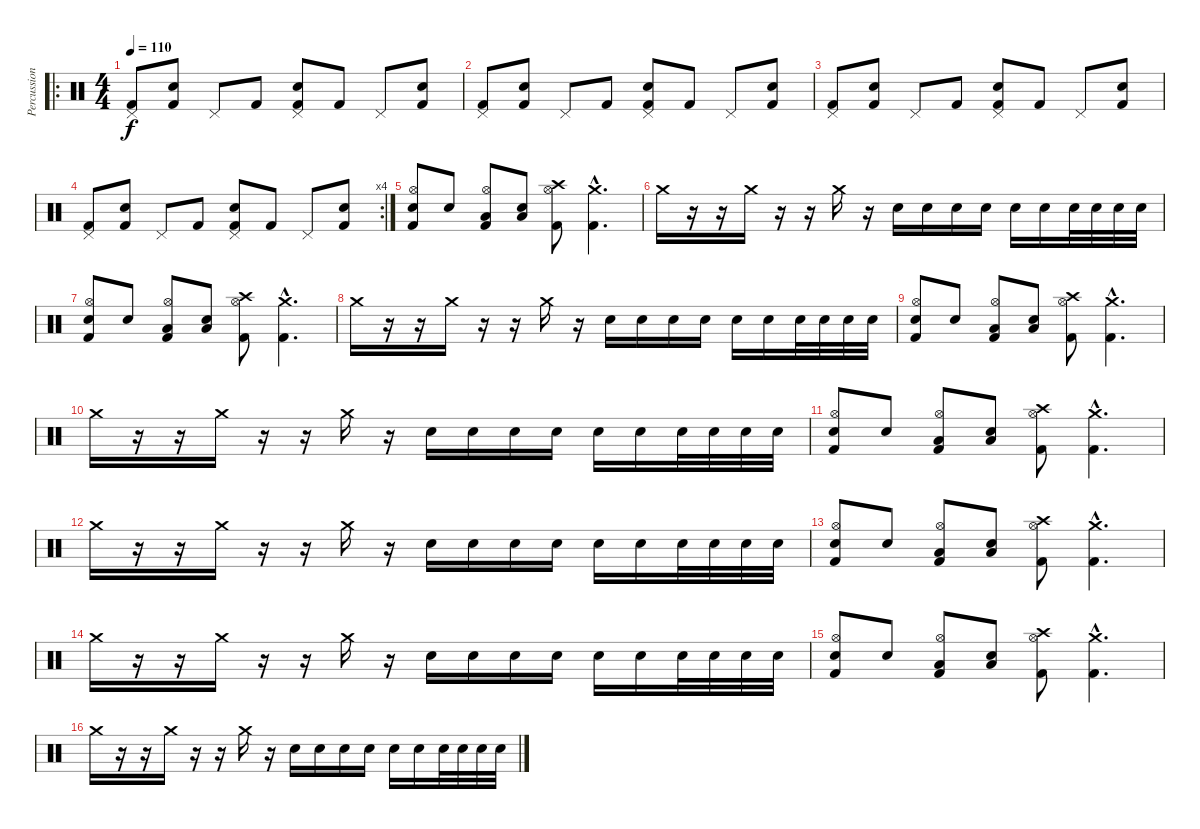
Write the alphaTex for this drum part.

\track ("Percussion" "Percussion") {instrument percussion}
\staff {score}
\articulation defaults
\ro
\ts (4 4)
\tempo 110
\clef neutral
\ks c
("Pedal Hi-Hat (hit)" "Kick (hit) 2").8{dy f} ("Electric Snare (hit)" "Kick (hit) 2").8 "Pedal Hi-Hat (hit)".8 "Kick (hit) 2".8 ("Pedal Hi-Hat (hit)" "Electric Snare (hit)" "Kick (hit) 2").8 "Kick (hit) 2".8 "Pedal Hi-Hat (hit)".8 ("Electric Snare (hit)" "Kick (hit) 2").8 |
("Pedal Hi-Hat (hit)" "Kick (hit) 2").8 ("Electric Snare (hit)" "Kick (hit) 2").8 "Pedal Hi-Hat (hit)".8 "Kick (hit) 2".8 ("Pedal Hi-Hat (hit)" "Electric Snare (hit)" "Kick (hit) 2").8 "Kick (hit) 2".8 "Pedal Hi-Hat (hit)".8 ("Electric Snare (hit)" "Kick (hit) 2").8 |
("Pedal Hi-Hat (hit)" "Kick (hit) 2").8 ("Electric Snare (hit)" "Kick (hit) 2").8 "Pedal Hi-Hat (hit)".8 "Kick (hit) 2".8 ("Pedal Hi-Hat (hit)" "Electric Snare (hit)" "Kick (hit) 2").8 "Kick (hit) 2".8 "Pedal Hi-Hat (hit)".8 ("Electric Snare (hit)" "Kick (hit) 2").8 |
\rc 4
("Pedal Hi-Hat (hit)" "Kick (hit) 2").8 ("Electric Snare (hit)" "Kick (hit) 2").8 "Pedal Hi-Hat (hit)".8 "Kick (hit) 2".8 ("Pedal Hi-Hat (hit)" "Electric Snare (hit)" "Kick (hit) 2").8 "Kick (hit) 2".8 "Pedal Hi-Hat (hit)".8 ("Electric Snare (hit)" "Kick (hit) 2").8 |
("Hi-Hat (open)" "Snare (hit) 2" "Kick (hit) 2").8 "Snare (hit) 2".8 ("Hi-Hat (open)" "Low Tom (hit)" "Kick (hit) 2").8 ("Low Tom (hit)" "Snare (hit) 2").8 ("Hi-Hat (open)" "Crash high (hit)" "Kick (hit) 2").8 ("Crash medium (hit)"{hac} "Kick (hit) 2"{hac}).4{d} |
"Crash medium (hit)".16 r.16 r.16 "Crash medium (hit)".16 r.16 r.16 "Crash medium (hit)".16 r.16 "Electric Snare (hit)".16 "Electric Snare (hit)".16 "Electric Snare (hit)".16 "Electric Snare (hit)".16 "Electric Snare (hit)".16 "Electric Snare (hit)".16 "Electric Snare (hit)".32 "Electric Snare (hit)".32 "Electric Snare (hit)".32 "Electric Snare (hit)".32 |
("Hi-Hat (open)" "Snare (hit) 2" "Kick (hit) 2").8 "Snare (hit) 2".8 ("Hi-Hat (open)" "Low Tom (hit)" "Kick (hit) 2").8 ("Low Tom (hit)" "Snare (hit) 2").8 ("Hi-Hat (open)" "Crash high (hit)" "Kick (hit) 2").8 ("Crash medium (hit)"{hac} "Kick (hit) 2"{hac}).4{d} |
"Crash medium (hit)".16 r.16 r.16 "Crash medium (hit)".16 r.16 r.16 "Crash medium (hit)".16 r.16 "Electric Snare (hit)".16 "Electric Snare (hit)".16 "Electric Snare (hit)".16 "Electric Snare (hit)".16 "Electric Snare (hit)".16 "Electric Snare (hit)".16 "Electric Snare (hit)".32 "Electric Snare (hit)".32 "Electric Snare (hit)".32 "Electric Snare (hit)".32 |
("Hi-Hat (open)" "Snare (hit) 2" "Kick (hit) 2").8 "Snare (hit) 2".8 ("Hi-Hat (open)" "Low Tom (hit)" "Kick (hit) 2").8 ("Low Tom (hit)" "Snare (hit) 2").8 ("Hi-Hat (open)" "Crash high (hit)" "Kick (hit) 2").8 ("Crash medium (hit)"{hac} "Kick (hit) 2"{hac}).4{d} |
"Crash medium (hit)".16 r.16 r.16 "Crash medium (hit)".16 r.16 r.16 "Crash medium (hit)".16 r.16 "Electric Snare (hit)".16 "Electric Snare (hit)".16 "Electric Snare (hit)".16 "Electric Snare (hit)".16 "Electric Snare (hit)".16 "Electric Snare (hit)".16 "Electric Snare (hit)".32 "Electric Snare (hit)".32 "Electric Snare (hit)".32 "Electric Snare (hit)".32 |
("Hi-Hat (open)" "Snare (hit) 2" "Kick (hit) 2").8 "Snare (hit) 2".8 ("Hi-Hat (open)" "Low Tom (hit)" "Kick (hit) 2").8 ("Low Tom (hit)" "Snare (hit) 2").8 ("Hi-Hat (open)" "Crash high (hit)" "Kick (hit) 2").8 ("Crash medium (hit)"{hac} "Kick (hit) 2"{hac}).4{d} |
"Crash medium (hit)".16 r.16 r.16 "Crash medium (hit)".16 r.16 r.16 "Crash medium (hit)".16 r.16 "Electric Snare (hit)".16 "Electric Snare (hit)".16 "Electric Snare (hit)".16 "Electric Snare (hit)".16 "Electric Snare (hit)".16 "Electric Snare (hit)".16 "Electric Snare (hit)".32 "Electric Snare (hit)".32 "Electric Snare (hit)".32 "Electric Snare (hit)".32 |
("Hi-Hat (open)" "Snare (hit) 2" "Kick (hit) 2").8 "Snare (hit) 2".8 ("Hi-Hat (open)" "Low Tom (hit)" "Kick (hit) 2").8 ("Low Tom (hit)" "Snare (hit) 2").8 ("Hi-Hat (open)" "Crash high (hit)" "Kick (hit) 2").8 ("Crash medium (hit)"{hac} "Kick (hit) 2"{hac}).4{d} |
"Crash medium (hit)".16 r.16 r.16 "Crash medium (hit)".16 r.16 r.16 "Crash medium (hit)".16 r.16 "Electric Snare (hit)".16 "Electric Snare (hit)".16 "Electric Snare (hit)".16 "Electric Snare (hit)".16 "Electric Snare (hit)".16 "Electric Snare (hit)".16 "Electric Snare (hit)".32 "Electric Snare (hit)".32 "Electric Snare (hit)".32 "Electric Snare (hit)".32 |
("Hi-Hat (open)" "Snare (hit) 2" "Kick (hit) 2").8 "Snare (hit) 2".8 ("Hi-Hat (open)" "Low Tom (hit)" "Kick (hit) 2").8 ("Low Tom (hit)" "Snare (hit) 2").8 ("Hi-Hat (open)" "Crash high (hit)" "Kick (hit) 2").8 ("Crash medium (hit)"{hac} "Kick (hit) 2"{hac}).4{d} |
"Crash medium (hit)".16 r.16 r.16 "Crash medium (hit)".16 r.16 r.16 "Crash medium (hit)".16 r.16 "Electric Snare (hit)".16 "Electric Snare (hit)".16 "Electric Snare (hit)".16 "Electric Snare (hit)".16 "Electric Snare (hit)".16 "Electric Snare (hit)".16 "Electric Snare (hit)".32 "Electric Snare (hit)".32 "Electric Snare (hit)".32 "Electric Snare (hit)".32
